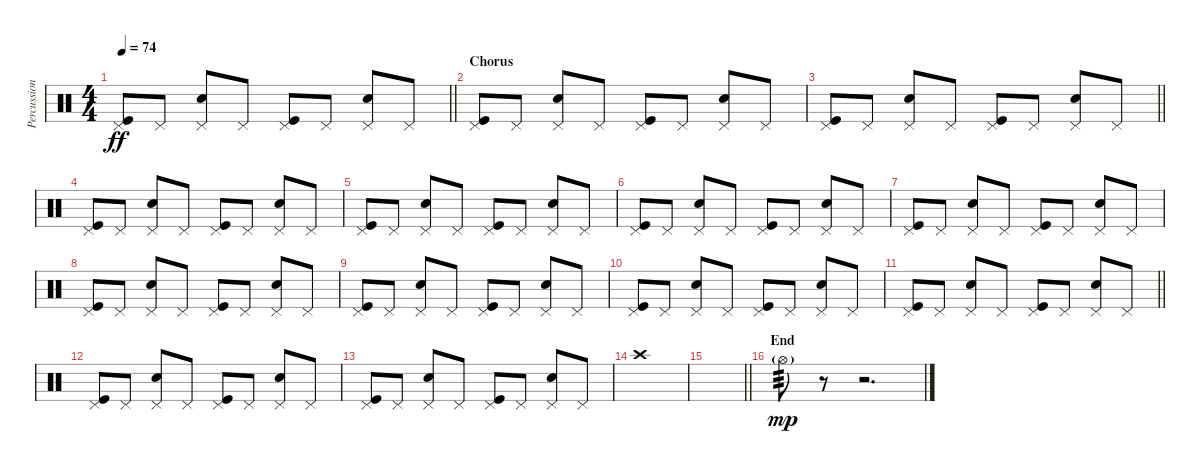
\track ("Percussion" "Percussion") {instrument percussion}
\staff {score}
\articulation defaults
\ts (4 4)
\tempo 74
\clef neutral
\barLineRight lightlight
\ks c
("Pedal Hi-Hat (hit)" "Kick (hit)").8{dy ff} "Pedal Hi-Hat (hit)".8 ("Pedal Hi-Hat (hit)" "Snare (hit) 2").8 "Pedal Hi-Hat (hit)".8 ("Pedal Hi-Hat (hit)" "Kick (hit)").8 "Pedal Hi-Hat (hit)".8 ("Pedal Hi-Hat (hit)" "Snare (hit) 2").8 "Pedal Hi-Hat (hit)".8 |
\section ("" "Chorus")
("Pedal Hi-Hat (hit)" "Kick (hit)").8 "Pedal Hi-Hat (hit)".8 ("Pedal Hi-Hat (hit)" "Snare (hit) 2").8 "Pedal Hi-Hat (hit)".8 ("Pedal Hi-Hat (hit)" "Kick (hit)").8 "Pedal Hi-Hat (hit)".8 ("Pedal Hi-Hat (hit)" "Snare (hit) 2").8 "Pedal Hi-Hat (hit)".8 |
\barLineRight lightlight
("Pedal Hi-Hat (hit)" "Kick (hit)").8 "Pedal Hi-Hat (hit)".8 ("Pedal Hi-Hat (hit)" "Snare (hit) 2").8 "Pedal Hi-Hat (hit)".8 ("Pedal Hi-Hat (hit)" "Kick (hit)").8 "Pedal Hi-Hat (hit)".8 ("Pedal Hi-Hat (hit)" "Snare (hit) 2").8 "Pedal Hi-Hat (hit)".8 |
("Pedal Hi-Hat (hit)" "Kick (hit)").8 "Pedal Hi-Hat (hit)".8 ("Pedal Hi-Hat (hit)" "Snare (hit) 2").8 "Pedal Hi-Hat (hit)".8 ("Pedal Hi-Hat (hit)" "Kick (hit)").8 "Pedal Hi-Hat (hit)".8 ("Pedal Hi-Hat (hit)" "Snare (hit) 2").8 "Pedal Hi-Hat (hit)".8 |
("Pedal Hi-Hat (hit)" "Kick (hit)").8 "Pedal Hi-Hat (hit)".8 ("Pedal Hi-Hat (hit)" "Snare (hit) 2").8 "Pedal Hi-Hat (hit)".8 ("Pedal Hi-Hat (hit)" "Kick (hit)").8 "Pedal Hi-Hat (hit)".8 ("Pedal Hi-Hat (hit)" "Snare (hit) 2").8 "Pedal Hi-Hat (hit)".8 |
("Pedal Hi-Hat (hit)" "Kick (hit)").8 "Pedal Hi-Hat (hit)".8 ("Pedal Hi-Hat (hit)" "Snare (hit) 2").8 "Pedal Hi-Hat (hit)".8 ("Pedal Hi-Hat (hit)" "Kick (hit)").8 "Pedal Hi-Hat (hit)".8 ("Pedal Hi-Hat (hit)" "Snare (hit) 2").8 "Pedal Hi-Hat (hit)".8 |
("Pedal Hi-Hat (hit)" "Kick (hit)").8 "Pedal Hi-Hat (hit)".8 ("Pedal Hi-Hat (hit)" "Snare (hit) 2").8 "Pedal Hi-Hat (hit)".8 ("Pedal Hi-Hat (hit)" "Kick (hit)").8 "Pedal Hi-Hat (hit)".8 ("Pedal Hi-Hat (hit)" "Snare (hit) 2").8 "Pedal Hi-Hat (hit)".8 |
("Pedal Hi-Hat (hit)" "Kick (hit)").8 "Pedal Hi-Hat (hit)".8 ("Pedal Hi-Hat (hit)" "Snare (hit) 2").8 "Pedal Hi-Hat (hit)".8 ("Pedal Hi-Hat (hit)" "Kick (hit)").8 "Pedal Hi-Hat (hit)".8 ("Pedal Hi-Hat (hit)" "Snare (hit) 2").8 "Pedal Hi-Hat (hit)".8 |
("Pedal Hi-Hat (hit)" "Kick (hit)").8 "Pedal Hi-Hat (hit)".8 ("Pedal Hi-Hat (hit)" "Snare (hit) 2").8 "Pedal Hi-Hat (hit)".8 ("Pedal Hi-Hat (hit)" "Kick (hit)").8 "Pedal Hi-Hat (hit)".8 ("Pedal Hi-Hat (hit)" "Snare (hit) 2").8 "Pedal Hi-Hat (hit)".8 |
("Pedal Hi-Hat (hit)" "Kick (hit)").8 "Pedal Hi-Hat (hit)".8 ("Pedal Hi-Hat (hit)" "Snare (hit) 2").8 "Pedal Hi-Hat (hit)".8 ("Pedal Hi-Hat (hit)" "Kick (hit)").8 "Pedal Hi-Hat (hit)".8 ("Pedal Hi-Hat (hit)" "Snare (hit) 2").8 "Pedal Hi-Hat (hit)".8 |
\barLineRight lightlight
("Pedal Hi-Hat (hit)" "Kick (hit)").8 "Pedal Hi-Hat (hit)".8 ("Pedal Hi-Hat (hit)" "Snare (hit) 2").8 "Pedal Hi-Hat (hit)".8 ("Pedal Hi-Hat (hit)" "Kick (hit)").8 "Pedal Hi-Hat (hit)".8 ("Pedal Hi-Hat (hit)" "Snare (hit) 2").8 "Pedal Hi-Hat (hit)".8 |
("Pedal Hi-Hat (hit)" "Kick (hit)").8 "Pedal Hi-Hat (hit)".8 ("Pedal Hi-Hat (hit)" "Snare (hit) 2").8 "Pedal Hi-Hat (hit)".8 ("Pedal Hi-Hat (hit)" "Kick (hit)").8 "Pedal Hi-Hat (hit)".8 ("Pedal Hi-Hat (hit)" "Snare (hit) 2").8 "Pedal Hi-Hat (hit)".8 |
("Pedal Hi-Hat (hit)" "Kick (hit)").8 "Pedal Hi-Hat (hit)".8 ("Pedal Hi-Hat (hit)" "Snare (hit) 2").8 "Pedal Hi-Hat (hit)".8 ("Pedal Hi-Hat (hit)" "Kick (hit)").8 "Pedal Hi-Hat (hit)".8 ("Pedal Hi-Hat (hit)" "Snare (hit) 2").8 "Pedal Hi-Hat (hit)".8 |
"Crash high (hit)".1 |
\barLineRight lightlight
|
\section ("" "End")
"Hi-Hat (open)"{g}.8{tp 3 dy mp} r.8 r.2{d}
